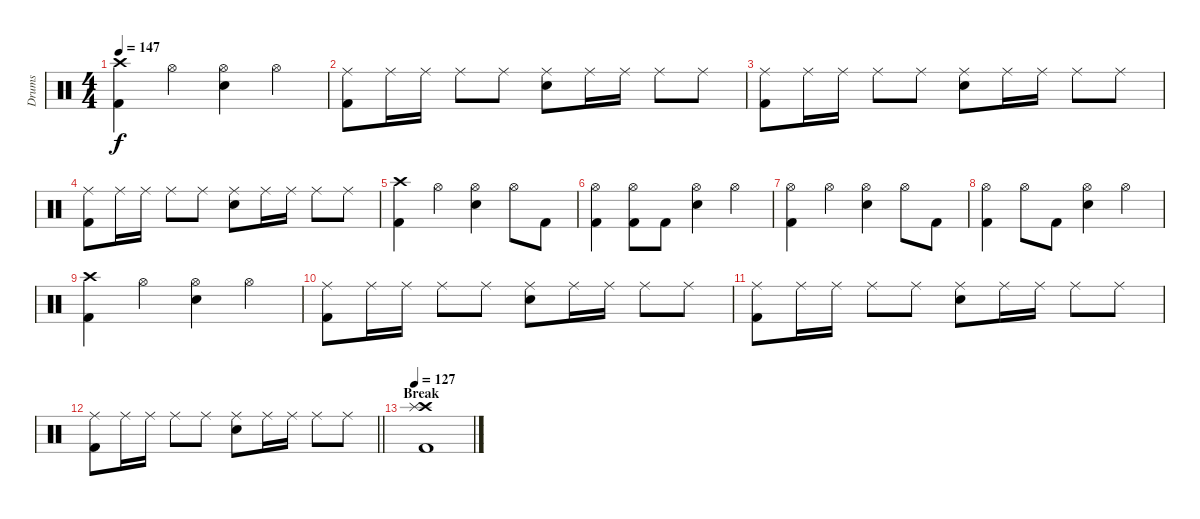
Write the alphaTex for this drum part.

\track ("Drums" "Drums") {instrument percussion}
\staff {score}
\articulation defaults
\ts (4 4)
\tempo 147
\clef neutral
\ks c
("Crash high (hit)" "Kick (hit) 2").4{dy f} "Hi-Hat (open)".4 ("Hi-Hat (open)" "Electric Snare (hit)").4 "Hi-Hat (open)".4 |
("Ride (middle)" "Kick (hit) 2").8 "Ride (middle)".16 "Ride (middle)".16 "Ride (middle)".8 "Ride (middle)".8 ("Ride (middle)" "Electric Snare (hit)").8 "Ride (middle)".16 "Ride (middle)".16 "Ride (middle)".8 "Ride (middle)".8 |
("Ride (middle)" "Kick (hit) 2").8 "Ride (middle)".16 "Ride (middle)".16 "Ride (middle)".8 "Ride (middle)".8 ("Ride (middle)" "Electric Snare (hit)").8 "Ride (middle)".16 "Ride (middle)".16 "Ride (middle)".8 "Ride (middle)".8 |
("Ride (middle)" "Kick (hit) 2").8 "Ride (middle)".16 "Ride (middle)".16 "Ride (middle)".8 "Ride (middle)".8 ("Ride (middle)" "Electric Snare (hit)").8 "Ride (middle)".16 "Ride (middle)".16 "Ride (middle)".8 "Ride (middle)".8 |
("Crash high (hit)" "Kick (hit) 2").4 "Hi-Hat (open)".4 ("Hi-Hat (open)" "Electric Snare (hit)").4 "Hi-Hat (open)".8 "Kick (hit) 2".8 |
("Hi-Hat (open)" "Kick (hit) 2").4 ("Hi-Hat (open)" "Kick (hit) 2").8 "Kick (hit) 2".8 ("Hi-Hat (open)" "Electric Snare (hit)").4 "Hi-Hat (open)".4 |
("Hi-Hat (open)" "Kick (hit) 2").4 "Hi-Hat (open)".4 ("Hi-Hat (open)" "Electric Snare (hit)").4 "Hi-Hat (open)".8 "Kick (hit) 2".8 |
("Hi-Hat (open)" "Kick (hit) 2").4 "Hi-Hat (open)".8 "Kick (hit) 2".8 ("Hi-Hat (open)" "Electric Snare (hit)").4 "Hi-Hat (open)".4 |
("Crash high (hit)" "Kick (hit) 2").4 "Hi-Hat (open)".4 ("Hi-Hat (open)" "Electric Snare (hit)").4 "Hi-Hat (open)".4 |
("Ride (middle)" "Kick (hit) 2").8 "Ride (middle)".16 "Ride (middle)".16 "Ride (middle)".8 "Ride (middle)".8 ("Ride (middle)" "Electric Snare (hit)").8 "Ride (middle)".16 "Ride (middle)".16 "Ride (middle)".8 "Ride (middle)".8 |
("Ride (middle)" "Kick (hit) 2").8 "Ride (middle)".16 "Ride (middle)".16 "Ride (middle)".8 "Ride (middle)".8 ("Ride (middle)" "Electric Snare (hit)").8 "Ride (middle)".16 "Ride (middle)".16 "Ride (middle)".8 "Ride (middle)".8 |
\barLineRight lightlight
("Ride (middle)" "Kick (hit) 2").8 "Ride (middle)".16 "Ride (middle)".16 "Ride (middle)".8 "Ride (middle)".8 ("Ride (middle)" "Electric Snare (hit)").8 "Ride (middle)".16 "Ride (middle)".16 "Ride (middle)".8 "Ride (middle)".8 |
\section ("" "Break")
\tempo 127
("Crash high (hit)" "Splash (hit)" "Kick (hit) 2").1
